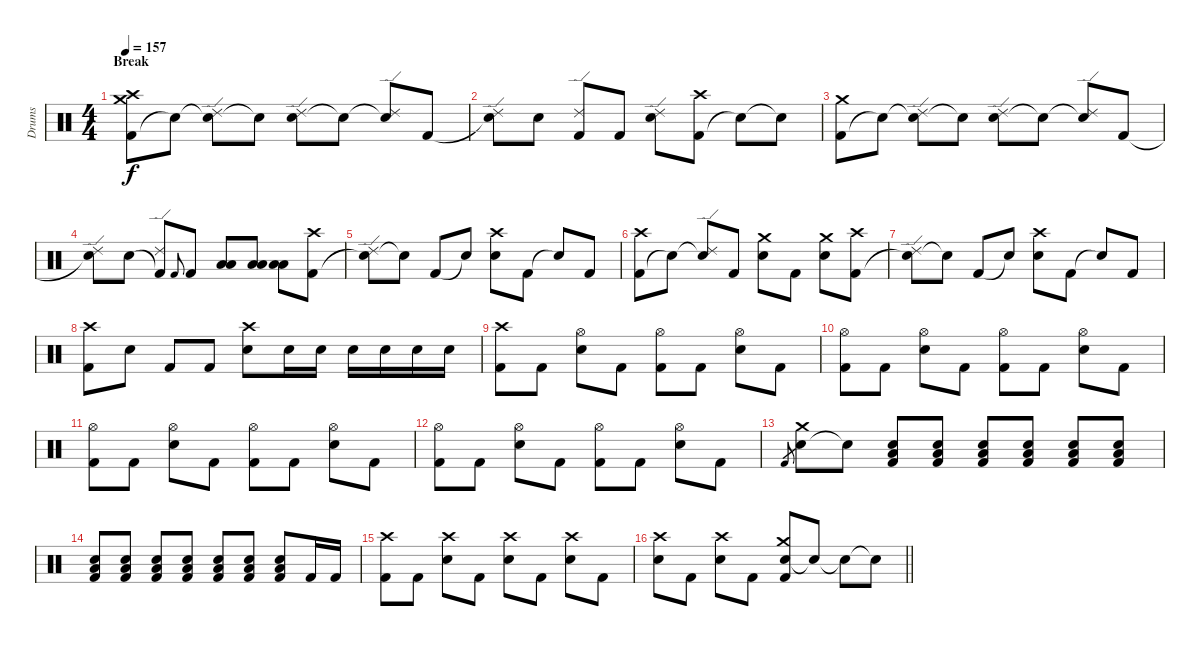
\track ("Drums" "Drums") {instrument percussion}
\staff {score}
\articulation defaults
\ts (4 4)
\section ("" "Break")
\tempo 157
\clef neutral
\ks c
("Kick (hit) 2" "Crash medium (hit)" "Crash high (hit)").8{dy f} "Snare (hit)"{t}.8 ("Snare (hit)"{t} "Ride (edge) 2").8 "Electric Snare (hit)"{t}.8 ("Electric Snare (hit)" "Ride (edge) 2").8 "Snare (hit)"{t}.8 ("Snare (hit)"{t} "Ride (edge) 2").8 "Kick (hit) 2".8 |
("Snare (hit)"{t} "Ride (edge) 2").8 "Electric Snare (hit)".8 ("Kick (hit) 2" "Ride (edge) 2").8 "Kick (hit) 2".8 ("Electric Snare (hit)" "Ride (edge) 2").8 ("Kick (hit) 2" "Crash high (hit)").8 "Snare (hit)"{t}.8 "Snare (hit)"{t}.8 |
("Kick (hit) 2" "Crash medium (hit)").8 "Snare (hit)"{t}.8 ("Snare (hit)"{t} "Ride (edge) 2").8 "Electric Snare (hit)"{t}.8 ("Electric Snare (hit)" "Ride (edge) 2").8 "Snare (hit)"{t}.8 ("Snare (hit)"{t} "Ride (edge) 2").8 "Kick (hit) 2".8 |
("Snare (hit)"{t} "Ride (edge) 2").8 "Electric Snare (hit)".8 ("Kick (hit) 2"{t} "Ride (edge) 2").8 "Kick (hit) 2".8{gr onbeat} "Kick (hit) 2".8 ("Low Tom (hit)" "Low Floor Tom (hit)").8 ("Low Tom (hit)" "Low Floor Tom (hit)").8 ("Low Tom (hit)" "Low Floor Tom (hit)").8 ("Kick (hit) 2" "Crash high (hit)").8 |
("Snare (hit)"{t} "Ride (edge) 2").8 "Snare (hit)"{t}.8 "Kick (hit) 2".8 "Snare (hit)"{t}.8 ("Electric Snare (hit)" "Crash high (hit)").8 "Kick (hit) 2".8 "Snare (hit)"{t}.8 "Kick (hit) 2".8 |
("Kick (hit) 2" "Crash high (hit)").8 "Snare (hit)"{t}.8 ("Snare (hit)"{t} "Ride (edge) 2").8 "Kick (hit) 2".8 ("Electric Snare (hit)" "Crash medium (hit)").8 "Kick (hit) 2".8 ("Electric Snare (hit)" "Crash medium (hit)").8 ("Kick (hit) 2" "Crash high (hit)").8 |
("Snare (hit)"{t} "Ride (edge) 2").8 "Snare (hit)"{t}.8 "Kick (hit) 2".8 "Snare (hit)"{t}.8 ("Electric Snare (hit)" "Crash high (hit)").8 "Kick (hit) 2".8 "Snare (hit)"{t}.8 "Kick (hit) 2".8 |
("Kick (hit) 2" "Crash high (hit)").8 "Electric Snare (hit)".8 "Kick (hit) 2".8 "Kick (hit) 2".8 ("Electric Snare (hit)" "Crash high (hit)").8 "Electric Snare (hit)".16 "Electric Snare (hit)".16 "Electric Snare (hit)".16 "Electric Snare (hit)".16 "Electric Snare (hit)".16 "Electric Snare (hit)".16 |
("Kick (hit) 2" "Crash high (hit)").8 "Kick (hit) 2".8 ("Electric Snare (hit)" "Hi-Hat (open)").8 "Kick (hit) 2".8 ("Kick (hit) 2" "Hi-Hat (open)").8 "Kick (hit) 2".8 ("Electric Snare (hit)" "Hi-Hat (open)").8 "Kick (hit) 2".8 |
("Kick (hit) 2" "Hi-Hat (open)").8 "Kick (hit) 2".8 ("Electric Snare (hit)" "Hi-Hat (open)").8 "Kick (hit) 2".8 ("Kick (hit) 2" "Hi-Hat (open)").8 "Kick (hit) 2".8 ("Electric Snare (hit)" "Hi-Hat (open)").8 "Kick (hit) 2".8 |
("Kick (hit) 2" "Hi-Hat (open)").8 "Kick (hit) 2".8 ("Electric Snare (hit)" "Hi-Hat (open)").8 "Kick (hit) 2".8 ("Kick (hit) 2" "Hi-Hat (open)").8 "Kick (hit) 2".8 ("Electric Snare (hit)" "Hi-Hat (open)").8 "Kick (hit) 2".8 |
("Kick (hit) 2" "Hi-Hat (open)").8 "Kick (hit) 2".8 ("Electric Snare (hit)" "Hi-Hat (open)").8 "Kick (hit) 2".8 ("Kick (hit) 2" "Hi-Hat (open)").8 "Kick (hit) 2".8 ("Electric Snare (hit)" "Hi-Hat (open)").8 "Kick (hit) 2".8 |
"Kick (hit) 2".8{gr} ("Electric Snare (hit)" "Crash medium (hit)").8 "Snare (hit)"{t}.8 ("Electric Snare (hit)" "Low Floor Tom (hit)" "Kick (hit) 2").8 ("Electric Snare (hit)" "Low Floor Tom (hit)" "Kick (hit) 2").8 ("Electric Snare (hit)" "Low Floor Tom (hit)" "Kick (hit) 2").8 ("Electric Snare (hit)" "Low Floor Tom (hit)" "Kick (hit) 2").8 ("Electric Snare (hit)" "Low Floor Tom (hit)" "Kick (hit) 2").8 ("Electric Snare (hit)" "Low Floor Tom (hit)" "Kick (hit) 2").8 |
("Electric Snare (hit)" "Low Floor Tom (hit)" "Kick (hit) 2").8 ("Electric Snare (hit)" "Low Floor Tom (hit)" "Kick (hit) 2").8 ("Electric Snare (hit)" "Low Floor Tom (hit)" "Kick (hit) 2").8 ("Electric Snare (hit)" "Low Floor Tom (hit)" "Kick (hit) 2").8 ("Electric Snare (hit)" "Low Floor Tom (hit)" "Kick (hit) 2").8 ("Electric Snare (hit)" "Low Floor Tom (hit)" "Kick (hit) 2").8 ("Electric Snare (hit)" "Low Floor Tom (hit)" "Kick (hit) 2").8 "Kick (hit) 2".16 "Kick (hit) 2".16 |
("Kick (hit) 2" "Crash high (hit)").8 "Kick (hit) 2".8 ("Electric Snare (hit)" "Crash high (hit)").8 "Kick (hit) 2".8 ("Electric Snare (hit)" "Crash high (hit)").8 "Kick (hit) 2".8 ("Electric Snare (hit)" "Crash high (hit)").8 "Kick (hit) 2".8 |
\barLineRight lightlight
("Electric Snare (hit)" "Crash high (hit)").8 "Kick (hit) 2".8 ("Electric Snare (hit)" "Crash high (hit)").8 "Kick (hit) 2".8 ("Electric Snare (hit)" "Crash medium (hit)" "Kick (hit) 2").8 "Snare (hit)"{t}.8 "Snare (hit)"{t}.8 "Snare (hit)"{t}.8
